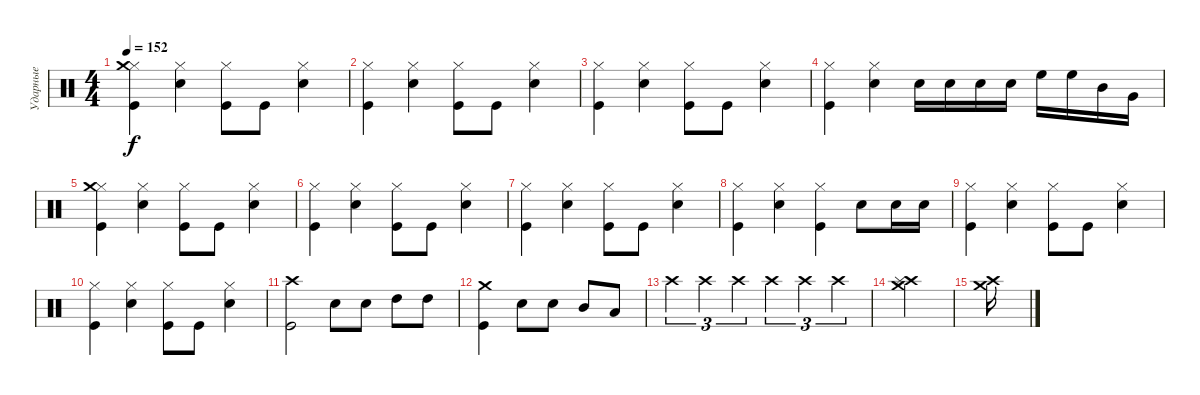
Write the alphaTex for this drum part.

\track ("Ударные" "Ударные") {instrument percussion}
\staff {score}
\articulation defaults
\ts (4 4)
\tempo 152
\clef neutral
\ks c
("Hi-Hat (closed)" "Crash medium (hit)" "Kick (hit)").4{dy f} ("Hi-Hat (closed)" "Snare (hit) 2").4 ("Kick (hit)" "Hi-Hat (closed)").8 "Kick (hit)".8 ("Snare (hit) 2" "Hi-Hat (closed)").4 |
("Hi-Hat (closed)" "Kick (hit)").4 ("Hi-Hat (closed)" "Snare (hit) 2").4 ("Kick (hit)" "Hi-Hat (closed)").8 "Kick (hit)".8 ("Snare (hit) 2" "Hi-Hat (closed)").4 |
("Hi-Hat (closed)" "Kick (hit)").4 ("Hi-Hat (closed)" "Snare (hit) 2").4 ("Kick (hit)" "Hi-Hat (closed)").8 "Kick (hit)".8 ("Snare (hit) 2" "Hi-Hat (closed)").4 |
("Hi-Hat (closed)" "Kick (hit)").4 ("Hi-Hat (closed)" "Snare (hit) 2").4 "Snare (hit) 2".16 "Snare (hit) 2".16 "Snare (hit) 2".16 "Snare (hit) 2".16 "High Floor Tom (hit)".16 "High Floor Tom (hit)".16 "Mid Tom (hit)".16 "Very Low Tom (hit)".16 |
("Hi-Hat (closed)" "Crash medium (hit)" "Kick (hit)").4 ("Hi-Hat (closed)" "Snare (hit) 2").4 ("Kick (hit)" "Hi-Hat (closed)").8 "Kick (hit)".8 ("Snare (hit) 2" "Hi-Hat (closed)").4 |
("Hi-Hat (closed)" "Kick (hit)").4 ("Hi-Hat (closed)" "Snare (hit) 2").4 ("Kick (hit)" "Hi-Hat (closed)").8 "Kick (hit)".8 ("Snare (hit) 2" "Hi-Hat (closed)").4 |
("Hi-Hat (closed)" "Kick (hit)").4 ("Hi-Hat (closed)" "Snare (hit) 2").4 ("Kick (hit)" "Hi-Hat (closed)").8 "Kick (hit)".8 ("Snare (hit) 2" "Hi-Hat (closed)").4 |
("Hi-Hat (closed)" "Kick (hit)").4 ("Hi-Hat (closed)" "Snare (hit) 2").4 ("Kick (hit)" "Hi-Hat (closed)").4 "Snare (hit) 2".8 "Snare (hit) 2".16 "Snare (hit) 2".16 |
("Hi-Hat (closed)" "Kick (hit)").4 ("Hi-Hat (closed)" "Snare (hit) 2").4 ("Kick (hit)" "Hi-Hat (closed)").8 "Kick (hit)".8 ("Snare (hit) 2" "Hi-Hat (closed)").4 |
("Hi-Hat (closed)" "Kick (hit)").4 ("Hi-Hat (closed)" "Snare (hit) 2").4 ("Kick (hit)" "Hi-Hat (closed)").8 "Kick (hit)".8 ("Snare (hit) 2" "Hi-Hat (closed)").4 |
("Crash high (hit)" "Kick (hit)").2 "Snare (hit) 2".8 "Snare (hit) 2".8 "High Tom (hit)".8 "High Tom (hit)".8 |
("Crash medium (hit)" "Kick (hit)").4 "Snare (hit) 2".8 "Snare (hit) 2".8 "Mid Tom (hit)".8 "Low Tom (hit)".8 |
"Crash high (hit)".4{tu (3 2)} "Crash high (hit)".4{tu (3 2)} "Crash high (hit)".4{tu (3 2)} "Crash high (hit)".4{tu (3 2)} "Crash high (hit)".4{tu (3 2)} "Crash high (hit)".4{tu (3 2)} |
("Crash high (hit)" "Crash medium (hit)" "Splash (hit)").2 |
("Crash high (hit)" "Crash medium (hit)").16
